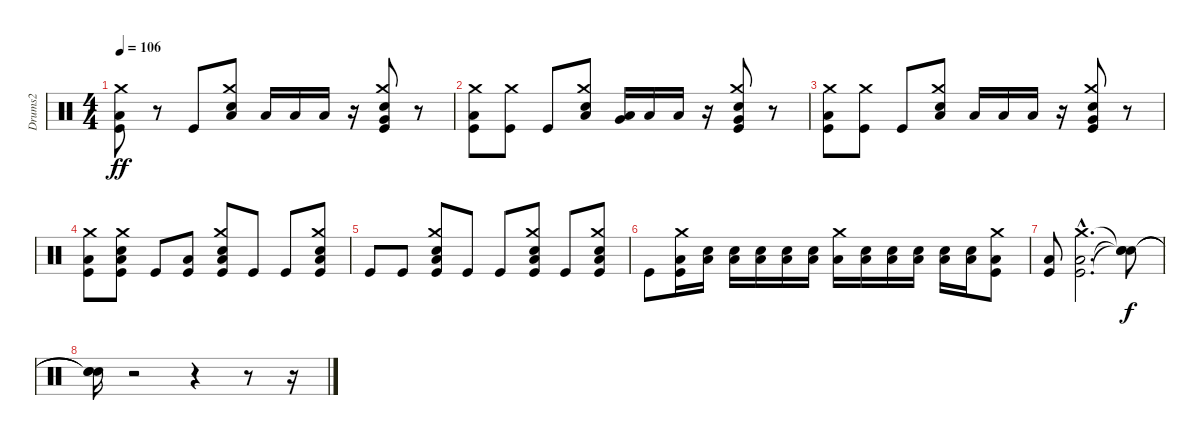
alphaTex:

\track ("Drums2" "Drums2") {instrument percussion}
\staff {score}
\articulation defaults
\ts (4 4)
\tempo 106
\clef neutral
\ks c
("Kick (hit)" "Low Floor Tom (hit)" "Crash medium (hit)").8{dy ff} r.8 "Kick (hit)".8 ("Snare (hit) 2" "Low Floor Tom (hit)" "Crash medium (hit)").8 "Low Floor Tom (hit)".16 "Low Floor Tom (hit)".16 "Low Floor Tom (hit)".16 r.16 ("Kick (hit)" "Snare (hit) 2" "Very Low Tom (hit)" "Crash medium (hit)").8 r.8 |
("Kick (hit)" "Low Floor Tom (hit)" "Crash medium (hit)").8 ("Kick (hit)" "Crash medium (hit)").8 "Kick (hit)".8 ("Snare (hit) 2" "Low Floor Tom (hit)" "Crash medium (hit)").8 ("Low Floor Tom (hit)" "Very Low Tom (hit)").16 "Low Floor Tom (hit)".16 "Low Floor Tom (hit)".16 r.16 ("Kick (hit)" "Snare (hit) 2" "Very Low Tom (hit)" "Crash medium (hit)").8 r.8 |
("Kick (hit)" "Low Floor Tom (hit)" "Crash medium (hit)").8 ("Kick (hit)" "Crash medium (hit)").8 "Kick (hit)".8 ("Snare (hit) 2" "Low Floor Tom (hit)" "Crash medium (hit)").8 "Low Floor Tom (hit)".16 "Low Floor Tom (hit)".16 "Low Floor Tom (hit)".16 r.16 ("Kick (hit)" "Snare (hit) 2" "Very Low Tom (hit)" "Crash medium (hit)").8 r.8 |
("Kick (hit)" "Low Floor Tom (hit)" "Crash medium (hit)").8 ("Kick (hit)" "Snare (hit) 2" "Low Floor Tom (hit)" "Crash medium (hit)").8 "Kick (hit)".8 ("Kick (hit)" "Low Floor Tom (hit)").8 ("Kick (hit)" "Snare (hit) 2" "Low Floor Tom (hit)" "Crash medium (hit)").8 "Kick (hit)".8 "Kick (hit)".8 ("Kick (hit)" "Snare (hit) 2" "Low Floor Tom (hit)" "Crash medium (hit)").8 |
"Kick (hit)".8 "Kick (hit)".8 ("Kick (hit)" "Snare (hit) 2" "Low Floor Tom (hit)" "Crash medium (hit)").8 "Kick (hit)".8 "Kick (hit)".8 ("Kick (hit)" "Snare (hit) 2" "Low Floor Tom (hit)" "Crash medium (hit)").8 "Kick (hit)".8 ("Kick (hit)" "Snare (hit) 2" "Low Floor Tom (hit)" "Crash medium (hit)").8 |
"Kick (hit)".8 ("Kick (hit)" "Low Floor Tom (hit)" "Crash medium (hit)").16 ("Snare (hit) 2" "Low Floor Tom (hit)").16 ("Snare (hit) 2" "Low Floor Tom (hit)").16 ("Snare (hit) 2" "Low Floor Tom (hit)").16 ("Snare (hit) 2" "Low Floor Tom (hit)").16 ("Snare (hit) 2" "Low Floor Tom (hit)").16 ("Low Floor Tom (hit)" "Crash medium (hit)").16 ("Snare (hit) 2" "Low Floor Tom (hit)").16 ("Snare (hit) 2" "Low Floor Tom (hit)").16 ("Snare (hit) 2" "Low Floor Tom (hit)").16 ("Snare (hit) 2" "Low Floor Tom (hit)").16 ("Snare (hit) 2" "Low Floor Tom (hit)").16 ("Kick (hit)" "Low Floor Tom (hit)" "Crash medium (hit)").8 |
("Kick (hit)" "Low Floor Tom (hit)").8 ("Kick (hit)"{hac} "Low Floor Tom (hit)"{hac} "Crash medium (hit)"{hac}).2{d} ("Snare (hit)"{t} "Snare (hit)"{t} "Snare (hit)"{t}).8{dy f} |
("Snare (hit)"{t} "Snare (hit)"{t} "Snare (hit)"{t}).16 r.2 r.4 r.8 r.16
